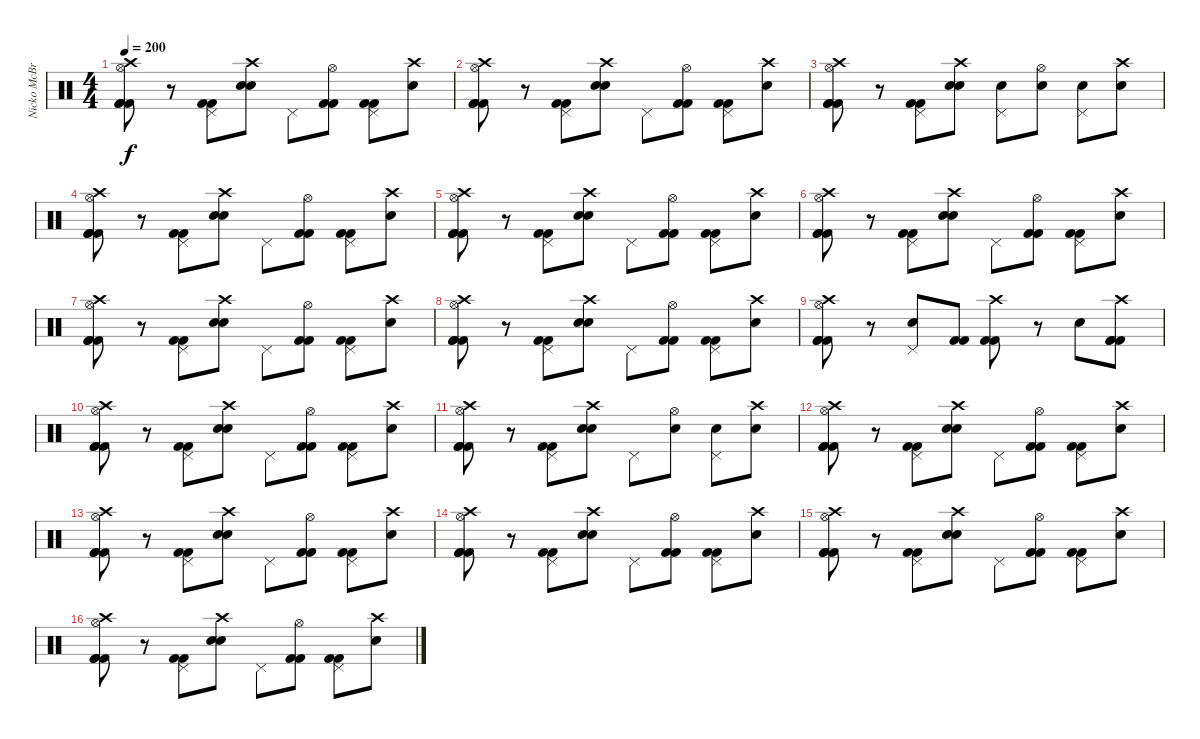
\track ("Nicko McBrain" "Nicko McBr") {instrument percussion}
\staff {score}
\articulation defaults
\ts (4 4)
\tempo 200
\clef neutral
\ks c
("Crash high (hit)" "Hi-Hat (open)" "Kick (hit) 2" "Kick (hit) 2" "Kick (hit) 2").8{dy f} r.8 ("Pedal Hi-Hat (hit)" "Kick (hit) 2" "Kick (hit) 2").8 ("Crash high (hit)" "Snare (hit) 2" "Snare (hit) 2").8 "Pedal Hi-Hat (hit)".8 ("Hi-Hat (open)" "Kick (hit) 2" "Kick (hit) 2").8 ("Pedal Hi-Hat (hit)" "Kick (hit) 2" "Kick (hit) 2").8 ("Crash high (hit)" "Snare (hit) 2").8 |
("Crash high (hit)" "Hi-Hat (open)" "Kick (hit) 2" "Kick (hit) 2" "Kick (hit) 2").8 r.8 ("Pedal Hi-Hat (hit)" "Kick (hit) 2" "Kick (hit) 2").8 ("Crash high (hit)" "Snare (hit) 2" "Snare (hit) 2").8 "Pedal Hi-Hat (hit)".8 ("Hi-Hat (open)" "Kick (hit) 2" "Kick (hit) 2").8 ("Pedal Hi-Hat (hit)" "Kick (hit) 2" "Kick (hit) 2").8 ("Crash high (hit)" "Snare (hit) 2").8 |
("Crash high (hit)" "Hi-Hat (open)" "Kick (hit) 2" "Kick (hit) 2" "Kick (hit) 2").8 r.8 ("Pedal Hi-Hat (hit)" "Kick (hit) 2" "Kick (hit) 2").8 ("Crash high (hit)" "Snare (hit) 2" "Snare (hit) 2").8 ("Pedal Hi-Hat (hit)" "Snare (hit) 2").8 ("Hi-Hat (open)" "Snare (hit) 2").8 ("Pedal Hi-Hat (hit)" "Snare (hit) 2").8 ("Crash high (hit)" "Snare (hit) 2").8 |
("Crash high (hit)" "Hi-Hat (open)" "Kick (hit) 2" "Kick (hit) 2" "Kick (hit) 2").8 r.8 ("Pedal Hi-Hat (hit)" "Kick (hit) 2" "Kick (hit) 2").8 ("Crash high (hit)" "Snare (hit) 2" "Snare (hit) 2").8 "Pedal Hi-Hat (hit)".8 ("Hi-Hat (open)" "Kick (hit) 2" "Kick (hit) 2").8 ("Pedal Hi-Hat (hit)" "Kick (hit) 2" "Kick (hit) 2").8 ("Crash high (hit)" "Snare (hit) 2").8 |
("Crash high (hit)" "Hi-Hat (open)" "Kick (hit) 2" "Kick (hit) 2" "Kick (hit) 2").8 r.8 ("Pedal Hi-Hat (hit)" "Kick (hit) 2" "Kick (hit) 2").8 ("Crash high (hit)" "Snare (hit) 2" "Snare (hit) 2").8 "Pedal Hi-Hat (hit)".8 ("Hi-Hat (open)" "Kick (hit) 2" "Kick (hit) 2").8 ("Pedal Hi-Hat (hit)" "Kick (hit) 2" "Kick (hit) 2").8 ("Crash high (hit)" "Snare (hit) 2").8 |
("Crash high (hit)" "Hi-Hat (open)" "Kick (hit) 2" "Kick (hit) 2" "Kick (hit) 2").8 r.8 ("Pedal Hi-Hat (hit)" "Kick (hit) 2" "Kick (hit) 2").8 ("Crash high (hit)" "Snare (hit) 2" "Snare (hit) 2").8 "Pedal Hi-Hat (hit)".8 ("Hi-Hat (open)" "Kick (hit) 2" "Kick (hit) 2").8 ("Pedal Hi-Hat (hit)" "Kick (hit) 2" "Kick (hit) 2").8 ("Crash high (hit)" "Snare (hit) 2").8 |
("Crash high (hit)" "Hi-Hat (open)" "Kick (hit) 2" "Kick (hit) 2" "Kick (hit) 2").8 r.8 ("Pedal Hi-Hat (hit)" "Kick (hit) 2" "Kick (hit) 2").8 ("Crash high (hit)" "Snare (hit) 2" "Snare (hit) 2").8 "Pedal Hi-Hat (hit)".8 ("Hi-Hat (open)" "Kick (hit) 2" "Kick (hit) 2").8 ("Pedal Hi-Hat (hit)" "Kick (hit) 2" "Kick (hit) 2").8 ("Crash high (hit)" "Snare (hit) 2").8 |
("Crash high (hit)" "Hi-Hat (open)" "Kick (hit) 2" "Kick (hit) 2" "Kick (hit) 2").8 r.8 ("Pedal Hi-Hat (hit)" "Kick (hit) 2" "Kick (hit) 2").8 ("Crash high (hit)" "Snare (hit) 2" "Snare (hit) 2").8 "Pedal Hi-Hat (hit)".8 ("Hi-Hat (open)" "Kick (hit) 2" "Kick (hit) 2").8 ("Pedal Hi-Hat (hit)" "Kick (hit) 2" "Kick (hit) 2").8 ("Crash high (hit)" "Snare (hit) 2").8 |
("Crash high (hit)" "Hi-Hat (open)" "Kick (hit) 2" "Kick (hit) 2" "Kick (hit) 2").8 r.8 ("Pedal Hi-Hat (hit)" "Snare (hit) 2").8 ("Kick (hit) 2" "Kick (hit) 2").8 ("Crash high (hit)" "Kick (hit) 2" "Kick (hit) 2").8 r.8 "Snare (hit) 2".8 ("Crash high (hit)" "Kick (hit) 2" "Kick (hit) 2" "Kick (hit) 2").8 |
("Crash high (hit)" "Hi-Hat (open)" "Kick (hit) 2" "Kick (hit) 2" "Kick (hit) 2").8 r.8 ("Pedal Hi-Hat (hit)" "Kick (hit) 2" "Kick (hit) 2").8 ("Crash high (hit)" "Snare (hit) 2" "Snare (hit) 2").8 "Pedal Hi-Hat (hit)".8 ("Hi-Hat (open)" "Kick (hit) 2" "Kick (hit) 2").8 ("Pedal Hi-Hat (hit)" "Kick (hit) 2" "Kick (hit) 2").8 ("Crash high (hit)" "Snare (hit) 2").8 |
("Crash high (hit)" "Hi-Hat (open)" "Kick (hit) 2" "Kick (hit) 2" "Kick (hit) 2").8 r.8 ("Pedal Hi-Hat (hit)" "Kick (hit) 2" "Kick (hit) 2").8 ("Crash high (hit)" "Snare (hit) 2" "Snare (hit) 2").8 "Pedal Hi-Hat (hit)".8 ("Hi-Hat (open)" "Snare (hit) 2").8 ("Pedal Hi-Hat (hit)" "Snare (hit) 2").8 ("Crash high (hit)" "Snare (hit) 2").8 |
("Crash high (hit)" "Hi-Hat (open)" "Kick (hit) 2" "Kick (hit) 2" "Kick (hit) 2").8 r.8 ("Pedal Hi-Hat (hit)" "Kick (hit) 2" "Kick (hit) 2").8 ("Crash high (hit)" "Snare (hit) 2" "Snare (hit) 2").8 "Pedal Hi-Hat (hit)".8 ("Hi-Hat (open)" "Kick (hit) 2" "Kick (hit) 2").8 ("Pedal Hi-Hat (hit)" "Kick (hit) 2" "Kick (hit) 2").8 ("Crash high (hit)" "Snare (hit) 2").8 |
("Crash high (hit)" "Hi-Hat (open)" "Kick (hit) 2" "Kick (hit) 2" "Kick (hit) 2").8 r.8 ("Pedal Hi-Hat (hit)" "Kick (hit) 2" "Kick (hit) 2").8 ("Crash high (hit)" "Snare (hit) 2" "Snare (hit) 2").8 "Pedal Hi-Hat (hit)".8 ("Hi-Hat (open)" "Kick (hit) 2" "Kick (hit) 2").8 ("Pedal Hi-Hat (hit)" "Kick (hit) 2" "Kick (hit) 2").8 ("Crash high (hit)" "Snare (hit) 2").8 |
("Crash high (hit)" "Hi-Hat (open)" "Kick (hit) 2" "Kick (hit) 2" "Kick (hit) 2").8 r.8 ("Pedal Hi-Hat (hit)" "Kick (hit) 2" "Kick (hit) 2").8 ("Crash high (hit)" "Snare (hit) 2" "Snare (hit) 2").8 "Pedal Hi-Hat (hit)".8 ("Hi-Hat (open)" "Kick (hit) 2" "Kick (hit) 2").8 ("Pedal Hi-Hat (hit)" "Kick (hit) 2" "Kick (hit) 2").8 ("Crash high (hit)" "Snare (hit) 2").8 |
("Crash high (hit)" "Hi-Hat (open)" "Kick (hit) 2" "Kick (hit) 2" "Kick (hit) 2").8 r.8 ("Pedal Hi-Hat (hit)" "Kick (hit) 2" "Kick (hit) 2").8 ("Crash high (hit)" "Snare (hit) 2" "Snare (hit) 2").8 "Pedal Hi-Hat (hit)".8 ("Hi-Hat (open)" "Kick (hit) 2" "Kick (hit) 2").8 ("Pedal Hi-Hat (hit)" "Kick (hit) 2" "Kick (hit) 2").8 ("Crash high (hit)" "Snare (hit) 2").8 |
("Crash high (hit)" "Hi-Hat (open)" "Kick (hit) 2" "Kick (hit) 2" "Kick (hit) 2").8 r.8 ("Pedal Hi-Hat (hit)" "Kick (hit) 2" "Kick (hit) 2").8 ("Crash high (hit)" "Snare (hit) 2" "Snare (hit) 2").8 "Pedal Hi-Hat (hit)".8 ("Hi-Hat (open)" "Kick (hit) 2" "Kick (hit) 2").8 ("Pedal Hi-Hat (hit)" "Kick (hit) 2" "Kick (hit) 2").8 ("Crash high (hit)" "Snare (hit) 2").8
